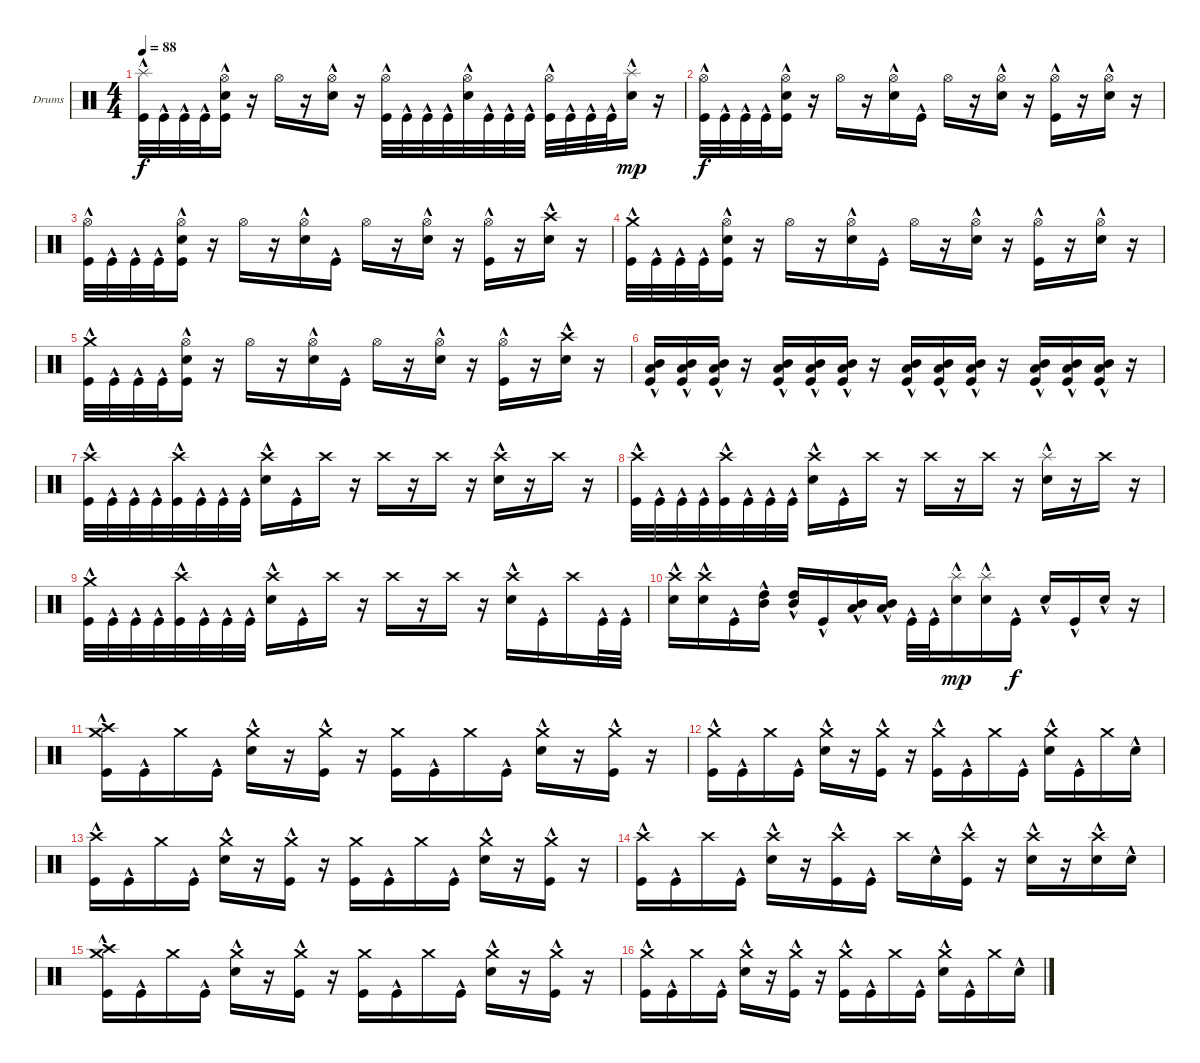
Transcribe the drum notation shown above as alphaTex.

\bracketExtendMode groupsimilarinstruments
\firstSystemTrackNameOrientation horizontal
\otherSystemsTrackNameOrientation horizontal
\track ("Drumkit" "Drums") {instrument percussion}
\staff {score}
\articulation defaults
\ts (4 4)
\tempo 88
\clef neutral
\ks c
("Kick (hit)"{hac} "Splash (hit)").32{dy f} "Kick (hit)"{hac}.32 "Kick (hit)"{hac}.32 "Kick (hit)"{hac}.32 ("Kick (hit)"{hac} "Snare (hit) 2" "Hi-Hat (open)").16 r.16 "Hi-Hat (open)".16 r.16 ("Snare (hit) 2"{hac} "Hi-Hat (open)").16 r.16 ("Kick (hit)"{hac} "Hi-Hat (open)").32 "Kick (hit)"{hac}.32 "Kick (hit)"{hac}.32 "Kick (hit)"{hac}.32 ("Snare (hit) 2"{hac} "Hi-Hat (open)").32 "Kick (hit)"{hac}.32 "Kick (hit)"{hac}.32 "Kick (hit)"{hac}.32 ("Kick (hit)"{hac} "Hi-Hat (open)").32 "Kick (hit)"{hac}.32 "Kick (hit)"{hac}.32 "Kick (hit)"{hac}.32 ("Snare (hit) 2"{hac} "Splash (hit)").16{dy mp} r.16 |
("Kick (hit)"{hac} "Hi-Hat (open)").32{dy f} "Kick (hit)"{hac}.32 "Kick (hit)"{hac}.32 "Kick (hit)"{hac}.32 ("Kick (hit)"{hac} "Snare (hit) 2" "Hi-Hat (open)").16 r.16 "Hi-Hat (open)".16 r.16 ("Snare (hit) 2"{hac} "Hi-Hat (open)").16 "Kick (hit)"{hac}.16 "Hi-Hat (open)".16 r.16 ("Snare (hit) 2"{hac} "Hi-Hat (open)").16 r.16 ("Kick (hit)"{hac} "Hi-Hat (open)").16 r.16 ("Snare (hit) 2"{hac} "Hi-Hat (open)").16 r.16 |
("Kick (hit)"{hac} "Hi-Hat (open)").32 "Kick (hit)"{hac}.32 "Kick (hit)"{hac}.32 "Kick (hit)"{hac}.32 ("Kick (hit)"{hac} "Snare (hit) 2" "Hi-Hat (open)").16 r.16 "Hi-Hat (open)".16 r.16 ("Snare (hit) 2"{hac} "Hi-Hat (open)").16 "Kick (hit)"{hac}.16 "Hi-Hat (open)".16 r.16 ("Snare (hit) 2"{hac} "Hi-Hat (open)").16 r.16 ("Kick (hit)"{hac} "Hi-Hat (open)").16 r.16 ("Snare (hit) 2"{hac} "Crash high (hit)").16 r.16 |
("Kick (hit)"{hac} "Crash medium (hit)").32 "Kick (hit)"{hac}.32 "Kick (hit)"{hac}.32 "Kick (hit)"{hac}.32 ("Kick (hit)"{hac} "Snare (hit) 2" "Hi-Hat (open)").16 r.16 "Hi-Hat (open)".16 r.16 ("Snare (hit) 2"{hac} "Hi-Hat (open)").16 "Kick (hit)"{hac}.16 "Hi-Hat (open)".16 r.16 ("Snare (hit) 2"{hac} "Hi-Hat (open)").16 r.16 ("Kick (hit)"{hac} "Hi-Hat (open)").16 r.16 ("Snare (hit) 2"{hac} "Hi-Hat (open)").16 r.16 |
("Kick (hit)"{hac} "Crash medium (hit)").32 "Kick (hit)"{hac}.32 "Kick (hit)"{hac}.32 "Kick (hit)"{hac}.32 ("Kick (hit)"{hac} "Snare (hit) 2" "Hi-Hat (open)").16 r.16 "Hi-Hat (open)".16 r.16 ("Snare (hit) 2"{hac} "Hi-Hat (open)").16 "Kick (hit)"{hac}.16 "Hi-Hat (open)".16 r.16 ("Snare (hit) 2"{hac} "Hi-Hat (open)").16 r.16 ("Kick (hit)"{hac} "Hi-Hat (open)").16 r.16 ("Snare (hit) 2"{hac} "Crash high (hit)").16 r.16 |
("Kick (hit)"{hac} "Low Tom (hit)"{hac} "Mid Tom (hit)"{hac}).16 ("Kick (hit)"{hac} "Low Tom (hit)"{hac} "Mid Tom (hit)"{hac}).16 ("Kick (hit)"{hac} "Low Tom (hit)"{hac} "Mid Tom (hit)"{hac}).16 r.16 ("Kick (hit)"{hac} "Low Tom (hit)"{hac} "Mid Tom (hit)"{hac}).16 ("Kick (hit)"{hac} "Low Tom (hit)"{hac} "Mid Tom (hit)"{hac}).16 ("Kick (hit)"{hac} "Low Tom (hit)"{hac} "Mid Tom (hit)"{hac}).16 r.16 ("Kick (hit)"{hac} "Low Tom (hit)"{hac} "Mid Tom (hit)"{hac}).16 ("Kick (hit)"{hac} "Low Tom (hit)"{hac} "Mid Tom (hit)"{hac}).16 ("Kick (hit)"{hac} "Low Tom (hit)"{hac} "Mid Tom (hit)"{hac}).16 r.16 ("Kick (hit)"{hac} "Low Tom (hit)"{hac} "Mid Tom (hit)"{hac}).16 ("Kick (hit)"{hac} "Low Tom (hit)"{hac} "Mid Tom (hit)"{hac}).16 ("Kick (hit)"{hac} "Low Tom (hit)"{hac} "Mid Tom (hit)"{hac}).16 r.16 |
("Kick (hit)"{hac} "Crash high (hit)").32 "Kick (hit)"{hac}.32 "Kick (hit)"{hac}.32 "Kick (hit)"{hac}.32 ("Kick (hit)"{hac} "Crash high (hit)").32 "Kick (hit)"{hac}.32 "Kick (hit)"{hac}.32 "Kick (hit)"{hac}.32 ("Snare (hit) 2"{hac} "Crash high (hit)").16 "Kick (hit)"{hac}.16 "Crash high (hit)".16 r.16 "Crash high (hit)".16 r.16 "Crash high (hit)".16 r.16 ("Snare (hit) 2"{hac} "Crash high (hit)").16 r.16 "Crash high (hit)".16 r.16 |
("Kick (hit)"{hac} "Crash high (hit)").32 "Kick (hit)"{hac}.32 "Kick (hit)"{hac}.32 "Kick (hit)"{hac}.32 ("Kick (hit)"{hac} "Crash high (hit)").32 "Kick (hit)"{hac}.32 "Kick (hit)"{hac}.32 "Kick (hit)"{hac}.32 ("Snare (hit) 2"{hac} "Crash high (hit)").16 "Kick (hit)"{hac}.16 "Crash high (hit)".16 r.16 "Crash high (hit)".16 r.16 "Crash high (hit)".16 r.16 ("Snare (hit) 2"{hac} "Splash (hit)").16 r.16 "Crash high (hit)".16 r.16 |
("Kick (hit)"{hac} "Crash medium (hit)").32 "Kick (hit)"{hac}.32 "Kick (hit)"{hac}.32 "Kick (hit)"{hac}.32 ("Kick (hit)"{hac} "Crash high (hit)").32 "Kick (hit)"{hac}.32 "Kick (hit)"{hac}.32 "Kick (hit)"{hac}.32 ("Snare (hit) 2"{hac} "Crash high (hit)").16 "Kick (hit)"{hac}.16 "Crash high (hit)".16 r.16 "Crash high (hit)".16 r.16 "Crash high (hit)".16 r.16 ("Snare (hit) 2"{hac} "Crash high (hit)").16 "Kick (hit)"{hac}.16 "Crash high (hit)".16 "Kick (hit)"{hac}.32 "Kick (hit)"{hac}.32 |
("Snare (hit) 2"{hac} "Crash high (hit)").16 ("Snare (hit) 2"{hac} "Crash high (hit)").16 "Kick (hit)"{hac}.16 ("High Tom (hit)"{hac} "Mid Tom (hit)"{hac}).16 ("High Tom (hit)"{hac} "Mid Tom (hit)"{hac}).16 "Kick (hit)"{hac}.16 ("Mid Tom (hit)"{hac} "Low Tom (hit)"{hac}).16 ("Mid Tom (hit)"{hac} "Low Tom (hit)"{hac}).16 "Kick (hit)"{hac}.32 "Kick (hit)"{hac}.32 ("Snare (hit) 2"{hac} "Splash (hit)").16{dy mp} ("Snare (hit) 2"{hac} "Splash (hit)").16 "Kick (hit)"{hac}.16{dy f} "Snare (hit) 2"{hac}.16 "Kick (hit)"{hac}.16 "Snare (hit) 2"{hac}.16 r.16 |
("Kick (hit)"{hac} "Crash high (hit)" "Crash medium (hit)").16 "Kick (hit)"{hac}.16 "Crash medium (hit)".16 "Kick (hit)"{hac}.16 ("Snare (hit) 2"{hac} "Crash medium (hit)").16 r.16 ("Kick (hit)"{hac} "Crash medium (hit)").16 r.16 ("Kick (hit)" "Crash medium (hit)").16 "Kick (hit)"{hac}.16 "Crash medium (hit)".16 "Kick (hit)"{hac}.16 ("Snare (hit) 2"{hac} "Crash medium (hit)").16 r.16 ("Kick (hit)"{hac} "Crash medium (hit)").16 r.16 |
("Kick (hit)"{hac} "Crash medium (hit)").16 "Kick (hit)"{hac}.16 "Crash medium (hit)".16 "Kick (hit)"{hac}.16 ("Snare (hit) 2"{hac} "Crash medium (hit)").16 r.16 ("Kick (hit)"{hac} "Crash medium (hit)").16 r.16 ("Kick (hit)"{hac} "Crash medium (hit)").16 "Kick (hit)"{hac}.16 "Crash medium (hit)".16 "Kick (hit)"{hac}.16 ("Snare (hit) 2"{hac} "Crash medium (hit)").16 "Kick (hit)"{hac}.16 "Crash medium (hit)".16 "Snare (hit) 2"{hac}.16 |
("Kick (hit)"{hac} "Crash high (hit)").16 "Kick (hit)"{hac}.16 "Crash medium (hit)".16 "Kick (hit)"{hac}.16 ("Snare (hit) 2"{hac} "Crash medium (hit)").16 r.16 ("Kick (hit)"{hac} "Crash medium (hit)").16 r.16 ("Kick (hit)" "Crash medium (hit)").16 "Kick (hit)"{hac}.16 "Crash medium (hit)".16 "Kick (hit)"{hac}.16 ("Snare (hit) 2"{hac} "Crash medium (hit)").16 r.16 ("Kick (hit)"{hac} "Crash medium (hit)").16 r.16 |
("Kick (hit)"{hac} "Crash high (hit)").16 "Kick (hit)"{hac}.16 "Crash high (hit)".16 "Kick (hit)"{hac}.16 ("Snare (hit) 2"{hac} "Crash high (hit)").16 r.16 ("Kick (hit)"{hac} "Crash high (hit)").16 "Kick (hit)"{hac}.16 "Crash high (hit)".16 "Snare (hit) 2"{hac}.16 ("Kick (hit)"{hac} "Crash high (hit)").16 r.16 ("Snare (hit) 2"{hac} "Crash high (hit)").16 r.16 ("Snare (hit) 2"{hac} "Crash high (hit)").16 "Snare (hit) 2"{hac}.16 |
("Kick (hit)"{hac} "Crash high (hit)" "Crash medium (hit)").16 "Kick (hit)"{hac}.16 "Crash medium (hit)".16 "Kick (hit)"{hac}.16 ("Snare (hit) 2"{hac} "Crash medium (hit)").16 r.16 ("Kick (hit)"{hac} "Crash medium (hit)").16 r.16 ("Kick (hit)" "Crash medium (hit)").16 "Kick (hit)"{hac}.16 "Crash medium (hit)".16 "Kick (hit)"{hac}.16 ("Snare (hit) 2"{hac} "Crash medium (hit)").16 r.16 ("Kick (hit)"{hac} "Crash medium (hit)").16 r.16 |
("Kick (hit)"{hac} "Crash medium (hit)").16 "Kick (hit)"{hac}.16 "Crash medium (hit)".16 "Kick (hit)"{hac}.16 ("Snare (hit) 2"{hac} "Crash medium (hit)").16 r.16 ("Kick (hit)"{hac} "Crash medium (hit)").16 r.16 ("Kick (hit)"{hac} "Crash medium (hit)").16 "Kick (hit)"{hac}.16 "Crash medium (hit)".16 "Kick (hit)"{hac}.16 ("Snare (hit) 2"{hac} "Crash medium (hit)").16 "Kick (hit)"{hac}.16 "Crash medium (hit)".16 "Snare (hit) 2"{hac}.16
